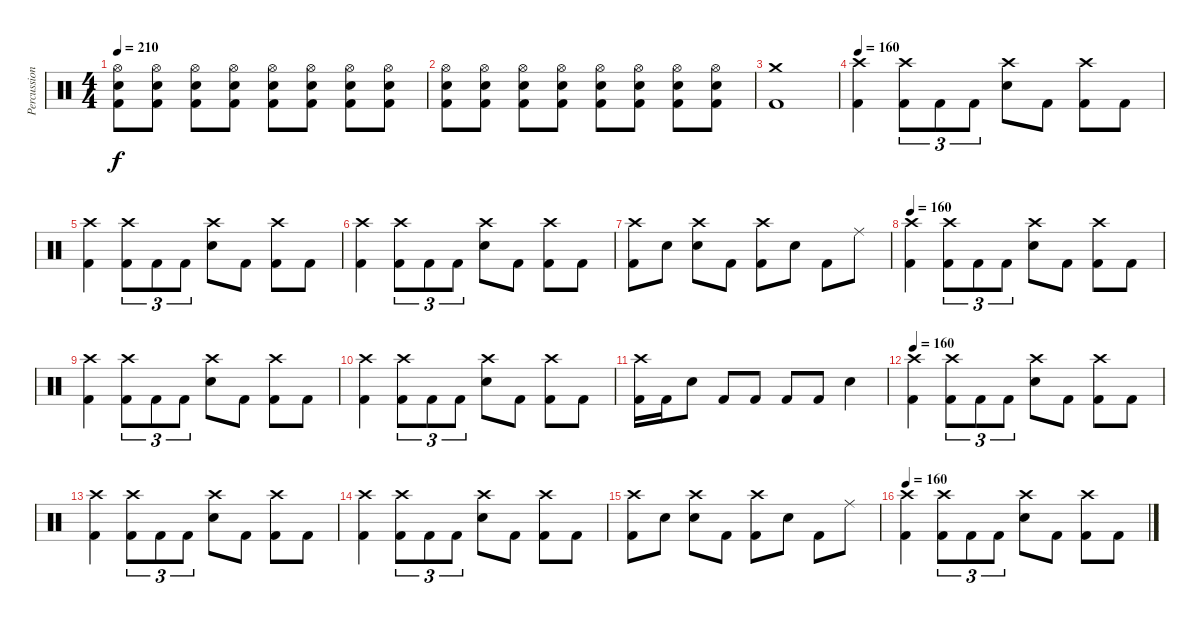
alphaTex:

\track ("Percussion" "Percussion") {instrument percussion}
\staff {score}
\articulation defaults
\ts (4 4)
\tempo 210
\clef neutral
\ks c
("Hi-Hat (open)" "Electric Snare (hit)" "Kick (hit) 2").8{dy f} ("Hi-Hat (open)" "Electric Snare (hit)" "Kick (hit) 2").8 ("Hi-Hat (open)" "Electric Snare (hit)" "Kick (hit) 2").8 ("Hi-Hat (open)" "Electric Snare (hit)" "Kick (hit) 2").8 ("Hi-Hat (open)" "Electric Snare (hit)" "Kick (hit) 2").8 ("Hi-Hat (open)" "Electric Snare (hit)" "Kick (hit) 2").8 ("Hi-Hat (open)" "Electric Snare (hit)" "Kick (hit) 2").8 ("Hi-Hat (open)" "Electric Snare (hit)" "Kick (hit) 2").8 |
("Hi-Hat (open)" "Electric Snare (hit)" "Kick (hit) 2").8 ("Hi-Hat (open)" "Electric Snare (hit)" "Kick (hit) 2").8 ("Hi-Hat (open)" "Electric Snare (hit)" "Kick (hit) 2").8 ("Hi-Hat (open)" "Electric Snare (hit)" "Kick (hit) 2").8 ("Hi-Hat (open)" "Electric Snare (hit)" "Kick (hit) 2").8 ("Hi-Hat (open)" "Electric Snare (hit)" "Kick (hit) 2").8 ("Hi-Hat (open)" "Electric Snare (hit)" "Kick (hit) 2").8 ("Hi-Hat (open)" "Electric Snare (hit)" "Kick (hit) 2").8 |
("Crash medium (hit)" "Kick (hit) 2").1 |
\tempo 160
("Crash high (hit)" "Kick (hit) 2").4 ("Crash high (hit)" "Kick (hit) 2").8{tu (3 2)} "Kick (hit) 2".8{tu (3 2)} "Kick (hit) 2".8{tu (3 2)} ("Crash high (hit)" "Electric Snare (hit)").8 "Kick (hit) 2".8 ("Crash high (hit)" "Kick (hit) 2").8 "Kick (hit) 2".8 |
("Crash high (hit)" "Kick (hit) 2").4 ("Crash high (hit)" "Kick (hit) 2").8{tu (3 2)} "Kick (hit) 2".8{tu (3 2)} "Kick (hit) 2".8{tu (3 2)} ("Crash high (hit)" "Electric Snare (hit)").8 "Kick (hit) 2".8 ("Crash high (hit)" "Kick (hit) 2").8 "Kick (hit) 2".8 |
("Crash high (hit)" "Kick (hit) 2").4 ("Crash high (hit)" "Kick (hit) 2").8{tu (3 2)} "Kick (hit) 2".8{tu (3 2)} "Kick (hit) 2".8{tu (3 2)} ("Crash high (hit)" "Electric Snare (hit)").8 "Kick (hit) 2".8 ("Crash high (hit)" "Kick (hit) 2").8 "Kick (hit) 2".8 |
("Crash high (hit)" "Kick (hit) 2").8 "Electric Snare (hit)".8 ("Crash high (hit)" "Electric Snare (hit)").8 "Kick (hit) 2".8 ("Crash high (hit)" "Kick (hit) 2").8 "Electric Snare (hit)".8 "Kick (hit) 2".8 "Ride (middle)".8 |
\tempo 160
("Crash high (hit)" "Kick (hit) 2").4 ("Crash high (hit)" "Kick (hit) 2").8{tu (3 2)} "Kick (hit) 2".8{tu (3 2)} "Kick (hit) 2".8{tu (3 2)} ("Crash high (hit)" "Electric Snare (hit)").8 "Kick (hit) 2".8 ("Crash high (hit)" "Kick (hit) 2").8 "Kick (hit) 2".8 |
("Crash high (hit)" "Kick (hit) 2").4 ("Crash high (hit)" "Kick (hit) 2").8{tu (3 2)} "Kick (hit) 2".8{tu (3 2)} "Kick (hit) 2".8{tu (3 2)} ("Crash high (hit)" "Electric Snare (hit)").8 "Kick (hit) 2".8 ("Crash high (hit)" "Kick (hit) 2").8 "Kick (hit) 2".8 |
("Crash high (hit)" "Kick (hit) 2").4 ("Crash high (hit)" "Kick (hit) 2").8{tu (3 2)} "Kick (hit) 2".8{tu (3 2)} "Kick (hit) 2".8{tu (3 2)} ("Crash high (hit)" "Electric Snare (hit)").8 "Kick (hit) 2".8 ("Crash high (hit)" "Kick (hit) 2").8 "Kick (hit) 2".8 |
("Crash high (hit)" "Kick (hit) 2").16 "Kick (hit) 2".16 "Electric Snare (hit)".8 "Kick (hit) 2".8 "Kick (hit) 2".8 "Kick (hit) 2".8 "Kick (hit) 2".8 "Electric Snare (hit)".4 |
\tempo 160
("Crash high (hit)" "Kick (hit) 2").4 ("Crash high (hit)" "Kick (hit) 2").8{tu (3 2)} "Kick (hit) 2".8{tu (3 2)} "Kick (hit) 2".8{tu (3 2)} ("Crash high (hit)" "Electric Snare (hit)").8 "Kick (hit) 2".8 ("Crash high (hit)" "Kick (hit) 2").8 "Kick (hit) 2".8 |
("Crash high (hit)" "Kick (hit) 2").4 ("Crash high (hit)" "Kick (hit) 2").8{tu (3 2)} "Kick (hit) 2".8{tu (3 2)} "Kick (hit) 2".8{tu (3 2)} ("Crash high (hit)" "Electric Snare (hit)").8 "Kick (hit) 2".8 ("Crash high (hit)" "Kick (hit) 2").8 "Kick (hit) 2".8 |
("Crash high (hit)" "Kick (hit) 2").4 ("Crash high (hit)" "Kick (hit) 2").8{tu (3 2)} "Kick (hit) 2".8{tu (3 2)} "Kick (hit) 2".8{tu (3 2)} ("Crash high (hit)" "Electric Snare (hit)").8 "Kick (hit) 2".8 ("Crash high (hit)" "Kick (hit) 2").8 "Kick (hit) 2".8 |
("Crash high (hit)" "Kick (hit) 2").8 "Electric Snare (hit)".8 ("Crash high (hit)" "Electric Snare (hit)").8 "Kick (hit) 2".8 ("Crash high (hit)" "Kick (hit) 2").8 "Electric Snare (hit)".8 "Kick (hit) 2".8 "Ride (middle)".8 |
\tempo 160
("Crash high (hit)" "Kick (hit) 2").4 ("Crash high (hit)" "Kick (hit) 2").8{tu (3 2)} "Kick (hit) 2".8{tu (3 2)} "Kick (hit) 2".8{tu (3 2)} ("Crash high (hit)" "Electric Snare (hit)").8 "Kick (hit) 2".8 ("Crash high (hit)" "Kick (hit) 2").8 "Kick (hit) 2".8
